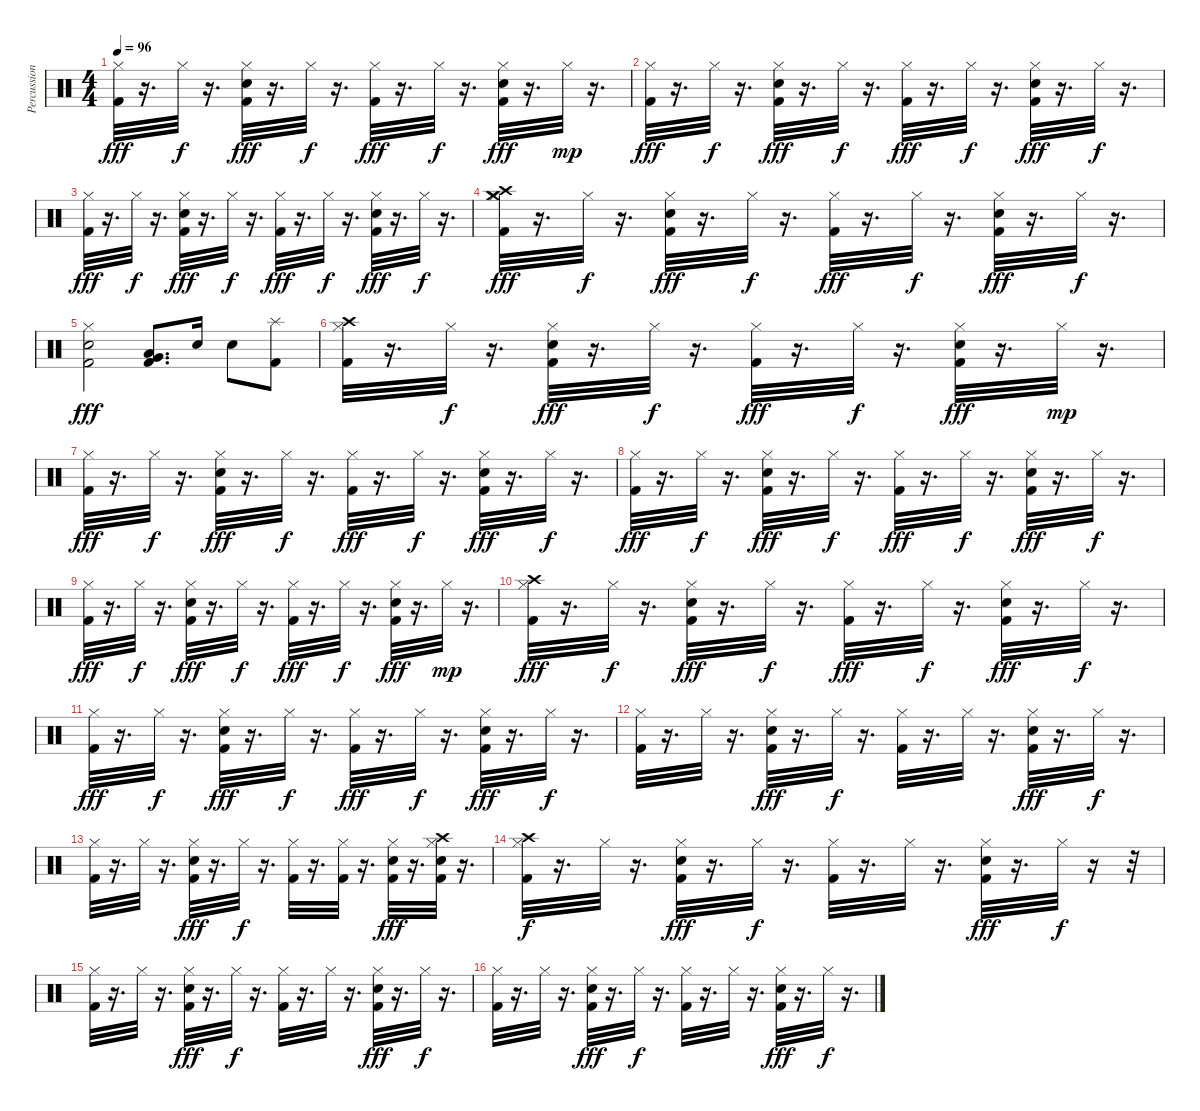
\track ("Percussion" "Percussion") {instrument percussion}
\staff {score}
\articulation defaults
\ts (4 4)
\tempo 96
\clef neutral
\ks c
("Hi-Hat (closed)" "Kick (hit) 2").32{dy fff} r.16{d} "Hi-Hat (closed)".32{dy f} r.16{d} ("Hi-Hat (closed)" "Snare (hit) 2" "Kick (hit) 2").32{dy fff} r.16{d} "Hi-Hat (closed)".32{dy f} r.16{d} ("Hi-Hat (closed)" "Kick (hit) 2").32{dy fff} r.16{d} "Hi-Hat (closed)".32{dy f} r.16{d} ("Hi-Hat (closed)" "Snare (hit) 2" "Kick (hit) 2").32{dy fff} r.16{d} "Hi-Hat (closed)".32{dy mp} r.16{d} |
("Hi-Hat (closed)" "Kick (hit) 2").32{dy fff} r.16{d} "Hi-Hat (closed)".32{dy f} r.16{d} ("Hi-Hat (closed)" "Snare (hit) 2" "Kick (hit) 2").32{dy fff} r.16{d} "Hi-Hat (closed)".32{dy f} r.16{d} ("Hi-Hat (closed)" "Kick (hit) 2").32{dy fff} r.16{d} "Hi-Hat (closed)".32{dy f} r.16{d} ("Hi-Hat (closed)" "Snare (hit) 2" "Kick (hit) 2").32{dy fff} r.16{d} "Hi-Hat (closed)".32{dy f} r.16{d} |
("Hi-Hat (closed)" "Kick (hit) 2").32{dy fff} r.16{d} "Hi-Hat (closed)".32{dy f} r.16{d} ("Hi-Hat (closed)" "Snare (hit) 2" "Kick (hit) 2").32{dy fff} r.16{d} "Hi-Hat (closed)".32{dy f} r.16{d} ("Hi-Hat (closed)" "Kick (hit) 2").32{dy fff} r.16{d} "Hi-Hat (closed)".32{dy f} r.16{d} ("Hi-Hat (closed)" "Snare (hit) 2" "Kick (hit) 2").32{dy fff} r.16{d} "Hi-Hat (closed)".32{dy f} r.16{d} |
("Hi-Hat (closed)" "Kick (hit) 2" "Crash medium (hit)" "Crash high (hit)").32{dy fff} r.16{d} "Hi-Hat (closed)".32{dy f} r.16{d} ("Hi-Hat (closed)" "Snare (hit) 2" "Kick (hit) 2").32{dy fff} r.16{d} "Hi-Hat (closed)".32{dy f} r.16{d} ("Hi-Hat (closed)" "Kick (hit) 2").32{dy fff} r.16{d} "Hi-Hat (closed)".32{dy f} r.16{d} ("Hi-Hat (closed)" "Snare (hit) 2" "Kick (hit) 2").32{dy fff} r.16{d} "Hi-Hat (closed)".32{dy f} r.16{d} |
("Hi-Hat (closed)" "Kick (hit) 2" "Snare (hit) 2").2{dy fff} ("Kick (hit) 2" "Very Low Tom (hit)" "Low Floor Tom (hit)").8{d} "Snare (hit) 2".16 "Snare (hit) 2".8 ("Splash (hit)" "Kick (hit) 2").8 |
("Crash high (hit)" "Hi-Hat (closed)" "Kick (hit) 2").32 r.16{d} "Hi-Hat (closed)".32{dy f} r.16{d} ("Hi-Hat (closed)" "Snare (hit) 2" "Kick (hit) 2").32{dy fff} r.16{d} "Hi-Hat (closed)".32{dy f} r.16{d} ("Hi-Hat (closed)" "Kick (hit) 2").32{dy fff} r.16{d} "Hi-Hat (closed)".32{dy f} r.16{d} ("Hi-Hat (closed)" "Snare (hit) 2" "Kick (hit) 2").32{dy fff} r.16{d} "Hi-Hat (closed)".32{dy mp} r.16{d} |
("Hi-Hat (closed)" "Kick (hit) 2").32{dy fff} r.16{d} "Hi-Hat (closed)".32{dy f} r.16{d} ("Hi-Hat (closed)" "Snare (hit) 2" "Kick (hit) 2").32{dy fff} r.16{d} "Hi-Hat (closed)".32{dy f} r.16{d} ("Hi-Hat (closed)" "Kick (hit) 2").32{dy fff} r.16{d} "Hi-Hat (closed)".32{dy f} r.16{d} ("Hi-Hat (closed)" "Snare (hit) 2" "Kick (hit) 2").32{dy fff} r.16{d} "Hi-Hat (closed)".32{dy f} r.16{d} |
("Hi-Hat (closed)" "Kick (hit) 2").32{dy fff} r.16{d} "Hi-Hat (closed)".32{dy f} r.16{d} ("Hi-Hat (closed)" "Snare (hit) 2" "Kick (hit) 2").32{dy fff} r.16{d} "Hi-Hat (closed)".32{dy f} r.16{d} ("Hi-Hat (closed)" "Kick (hit) 2").32{dy fff} r.16{d} "Hi-Hat (closed)".32{dy f} r.16{d} ("Hi-Hat (closed)" "Snare (hit) 2" "Kick (hit) 2").32{dy fff} r.16{d} "Hi-Hat (closed)".32{dy f} r.16{d} |
("Hi-Hat (closed)" "Kick (hit) 2").32{dy fff} r.16{d} "Hi-Hat (closed)".32{dy f} r.16{d} ("Hi-Hat (closed)" "Snare (hit) 2" "Kick (hit) 2").32{dy fff} r.16{d} "Hi-Hat (closed)".32{dy f} r.16{d} ("Hi-Hat (closed)" "Kick (hit) 2").32{dy fff} r.16{d} "Hi-Hat (closed)".32{dy f} r.16{d} ("Hi-Hat (closed)" "Snare (hit) 2" "Kick (hit) 2").32{dy fff} r.16{d} "Hi-Hat (closed)".32{dy mp} r.16{d} |
("Crash high (hit)" "Hi-Hat (closed)" "Kick (hit) 2").32{dy fff} r.16{d} "Hi-Hat (closed)".32{dy f} r.16{d} ("Hi-Hat (closed)" "Snare (hit) 2" "Kick (hit) 2").32{dy fff} r.16{d} "Hi-Hat (closed)".32{dy f} r.16{d} ("Hi-Hat (closed)" "Kick (hit) 2").32{dy fff} r.16{d} "Hi-Hat (closed)".32{dy f} r.16{d} ("Hi-Hat (closed)" "Snare (hit) 2" "Kick (hit) 2").32{dy fff} r.16{d} "Hi-Hat (closed)".32{dy f} r.16{d} |
("Hi-Hat (closed)" "Kick (hit) 2").32{dy fff} r.16{d} "Hi-Hat (closed)".32{dy f} r.16{d} ("Hi-Hat (closed)" "Snare (hit) 2" "Kick (hit) 2").32{dy fff} r.16{d} "Hi-Hat (closed)".32{dy f} r.16{d} ("Hi-Hat (closed)" "Kick (hit) 2").32{dy fff} r.16{d} "Hi-Hat (closed)".32{dy f} r.16{d} ("Hi-Hat (closed)" "Snare (hit) 2" "Kick (hit) 2").32{dy fff} r.16{d} "Hi-Hat (closed)".32{dy f} r.16{d} |
("Hi-Hat (closed)" "Kick (hit) 2").32 r.16{d} "Hi-Hat (closed)".32 r.16{d} ("Hi-Hat (closed)" "Snare (hit) 2" "Kick (hit) 2").32{dy fff} r.16{d} "Hi-Hat (closed)".32{dy f} r.16{d} ("Hi-Hat (closed)" "Kick (hit) 2").32 r.16{d} "Hi-Hat (closed)".32 r.16{d} ("Hi-Hat (closed)" "Snare (hit) 2" "Kick (hit) 2").32{dy fff} r.16{d} "Hi-Hat (closed)".32{dy f} r.16{d} |
("Hi-Hat (closed)" "Kick (hit) 2").32 r.16{d} "Hi-Hat (closed)".32 r.16{d} ("Hi-Hat (closed)" "Snare (hit) 2" "Kick (hit) 2").32{dy fff} r.16{d} "Hi-Hat (closed)".32{dy f} r.16{d} ("Hi-Hat (closed)" "Kick (hit) 2").32 r.16{d} ("Hi-Hat (closed)" "Kick (hit) 2").32 r.16{d} ("Hi-Hat (closed)" "Snare (hit) 2" "Kick (hit) 2").32{dy fff} r.16{d} ("Crash high (hit)" "Hi-Hat (closed)" "Snare (hit) 2" "Kick (hit) 2").32 r.16{d} |
("Crash high (hit)" "Hi-Hat (closed)" "Kick (hit) 2").32{dy f} r.16{d} "Hi-Hat (closed)".32 r.16{d} ("Hi-Hat (closed)" "Snare (hit) 2" "Kick (hit) 2").32{dy fff} r.16{d} "Hi-Hat (closed)".32{dy f} r.16{d} ("Hi-Hat (closed)" "Kick (hit) 2").32 r.16{d} "Hi-Hat (closed)".32 r.16{d} ("Hi-Hat (closed)" "Snare (hit) 2" "Kick (hit) 2").32{dy fff} r.16{d} "Hi-Hat (closed)".32{dy f} r.16 r.32 |
("Hi-Hat (closed)" "Kick (hit) 2").32 r.16{d} "Hi-Hat (closed)".32 r.16{d} ("Hi-Hat (closed)" "Snare (hit) 2" "Kick (hit) 2").32{dy fff} r.16{d} "Hi-Hat (closed)".32{dy f} r.16{d} ("Hi-Hat (closed)" "Kick (hit) 2").32 r.16{d} "Hi-Hat (closed)".32 r.16{d} ("Hi-Hat (closed)" "Snare (hit) 2" "Kick (hit) 2").32{dy fff} r.16{d} "Hi-Hat (closed)".32{dy f} r.16{d} |
("Hi-Hat (closed)" "Kick (hit) 2").32 r.16{d} "Hi-Hat (closed)".32 r.16{d} ("Hi-Hat (closed)" "Snare (hit) 2" "Kick (hit) 2").32{dy fff} r.16{d} "Hi-Hat (closed)".32{dy f} r.16{d} ("Hi-Hat (closed)" "Kick (hit) 2").32 r.16{d} "Hi-Hat (closed)".32 r.16{d} ("Hi-Hat (closed)" "Snare (hit) 2" "Kick (hit) 2").32{dy fff} r.16{d} "Hi-Hat (closed)".32{dy f} r.16{d}
